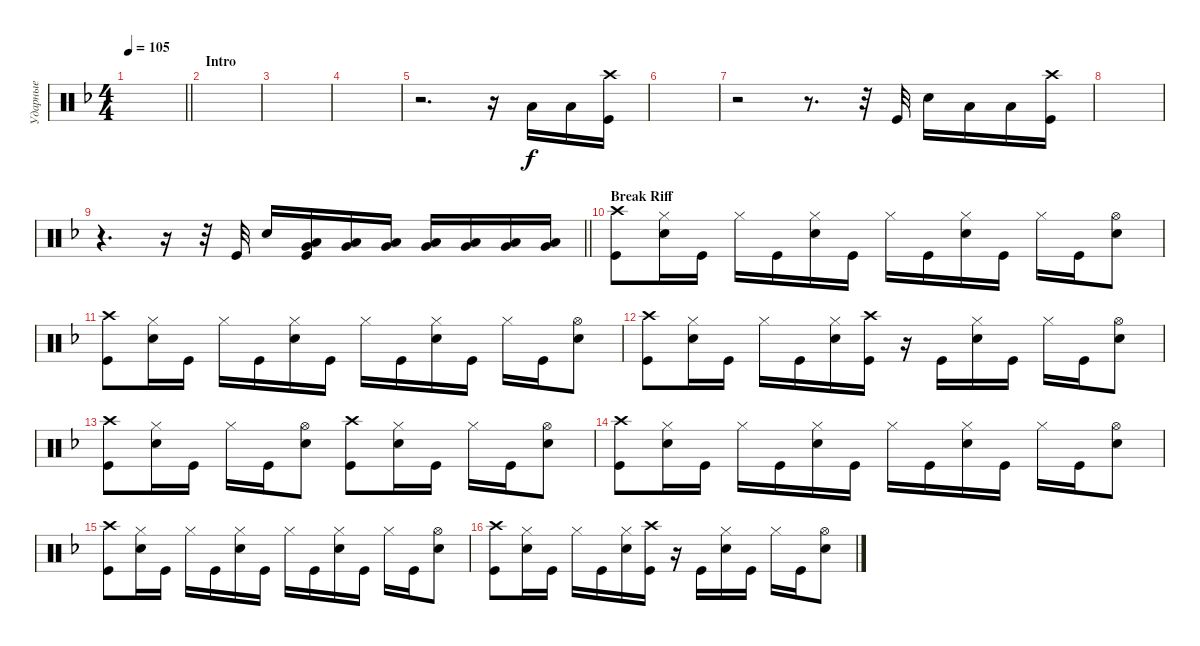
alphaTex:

\track ("Ударные" "Ударные") {instrument percussion}
\staff {score}
\articulation defaults
\ts (4 4)
\tempo 105
\clef neutral
\barLineRight lightlight
\ks dminor
|
\section ("" "Intro")
|
|
|
r.2{d} r.16 "Low Tom (hit)".16 "Low Tom (hit)".16 ("Kick (hit)" "Crash high (hit)").16 |
|
r.2 r.8{d} r.32 "Kick (hit)".32 "Snare (hit) 2".16 "Low Tom (hit)".16 "Low Tom (hit)".16 ("Kick (hit)" "Crash high (hit)").16 |
|
\barLineRight lightlight
r.4{d} r.16 r.32 "Kick (hit)".32 "Snare (hit) 2".16 ("Low Floor Tom (hit)" "Kick (hit)" "Very Low Tom (hit)").16{bd 60} ("Low Floor Tom (hit)" "Very Low Tom (hit)").16{bd 60} ("Low Floor Tom (hit)" "Very Low Tom (hit)").16{bd 60} ("Very Low Tom (hit)" "Low Floor Tom (hit)").16{bd 60} ("Very Low Tom (hit)" "Low Floor Tom (hit)").16{bd 60} ("Very Low Tom (hit)" "Low Floor Tom (hit)").16{bd 60} ("Very Low Tom (hit)" "Low Floor Tom (hit)").16{bd 60} |
\section ("" "Break Riff")
("Kick (hit)" "Crash high (hit)").8 ("Snare (hit) 2" "Hi-Hat (closed)").16 "Kick (hit)".16 "Hi-Hat (closed)".16 "Kick (hit)".16 ("Snare (hit) 2" "Hi-Hat (closed)").16 "Kick (hit)".16 "Hi-Hat (closed)".16 "Kick (hit)".16 ("Snare (hit) 2" "Hi-Hat (closed)").16 "Kick (hit)".16 "Hi-Hat (closed)".16 "Kick (hit)".16 ("Snare (hit) 2" "Hi-Hat (open)").8 |
("Kick (hit)" "Crash high (hit)").8 ("Snare (hit) 2" "Hi-Hat (closed)").16 "Kick (hit)".16 "Hi-Hat (closed)".16 "Kick (hit)".16 ("Snare (hit) 2" "Hi-Hat (closed)").16 "Kick (hit)".16 "Hi-Hat (closed)".16 "Kick (hit)".16 ("Snare (hit) 2" "Hi-Hat (closed)").16 "Kick (hit)".16 "Hi-Hat (closed)".16 "Kick (hit)".16 ("Snare (hit) 2" "Hi-Hat (open)").8 |
("Kick (hit)" "Crash high (hit)").8 ("Snare (hit) 2" "Hi-Hat (closed)").16 "Kick (hit)".16 "Hi-Hat (closed)".16 "Kick (hit)".16 ("Snare (hit) 2" "Hi-Hat (closed)").16 ("Kick (hit)" "Crash high (hit)").16 r.16 "Kick (hit)".16 ("Snare (hit) 2" "Hi-Hat (closed)").16 "Kick (hit)".16 "Hi-Hat (closed)".16 "Kick (hit)".16 ("Snare (hit) 2" "Hi-Hat (open)").8 |
("Kick (hit)" "Crash high (hit)").8 ("Snare (hit) 2" "Hi-Hat (closed)").16 "Kick (hit)".16 "Hi-Hat (closed)".16 "Kick (hit)".16 ("Snare (hit) 2" "Hi-Hat (open)").8 ("Kick (hit)" "Crash high (hit)").8 ("Snare (hit) 2" "Hi-Hat (closed)").16 "Kick (hit)".16 "Hi-Hat (closed)".16 "Kick (hit)".16 ("Snare (hit) 2" "Hi-Hat (open)").8 |
("Kick (hit)" "Crash high (hit)").8 ("Snare (hit) 2" "Hi-Hat (closed)").16 "Kick (hit)".16 "Hi-Hat (closed)".16 "Kick (hit)".16 ("Snare (hit) 2" "Hi-Hat (closed)").16 "Kick (hit)".16 "Hi-Hat (closed)".16 "Kick (hit)".16 ("Snare (hit) 2" "Hi-Hat (closed)").16 "Kick (hit)".16 "Hi-Hat (closed)".16 "Kick (hit)".16 ("Snare (hit) 2" "Hi-Hat (open)").8 |
("Kick (hit)" "Crash high (hit)").8 ("Snare (hit) 2" "Hi-Hat (closed)").16 "Kick (hit)".16 "Hi-Hat (closed)".16 "Kick (hit)".16 ("Snare (hit) 2" "Hi-Hat (closed)").16 "Kick (hit)".16 "Hi-Hat (closed)".16 "Kick (hit)".16 ("Snare (hit) 2" "Hi-Hat (closed)").16 "Kick (hit)".16 "Hi-Hat (closed)".16 "Kick (hit)".16 ("Snare (hit) 2" "Hi-Hat (open)").8 |
("Kick (hit)" "Crash high (hit)").8 ("Snare (hit) 2" "Hi-Hat (closed)").16 "Kick (hit)".16 "Hi-Hat (closed)".16 "Kick (hit)".16 ("Snare (hit) 2" "Hi-Hat (closed)").16 ("Kick (hit)" "Crash high (hit)").16 r.16 "Kick (hit)".16 ("Snare (hit) 2" "Hi-Hat (closed)").16 "Kick (hit)".16 "Hi-Hat (closed)".16 "Kick (hit)".16 ("Snare (hit) 2" "Hi-Hat (open)").8
